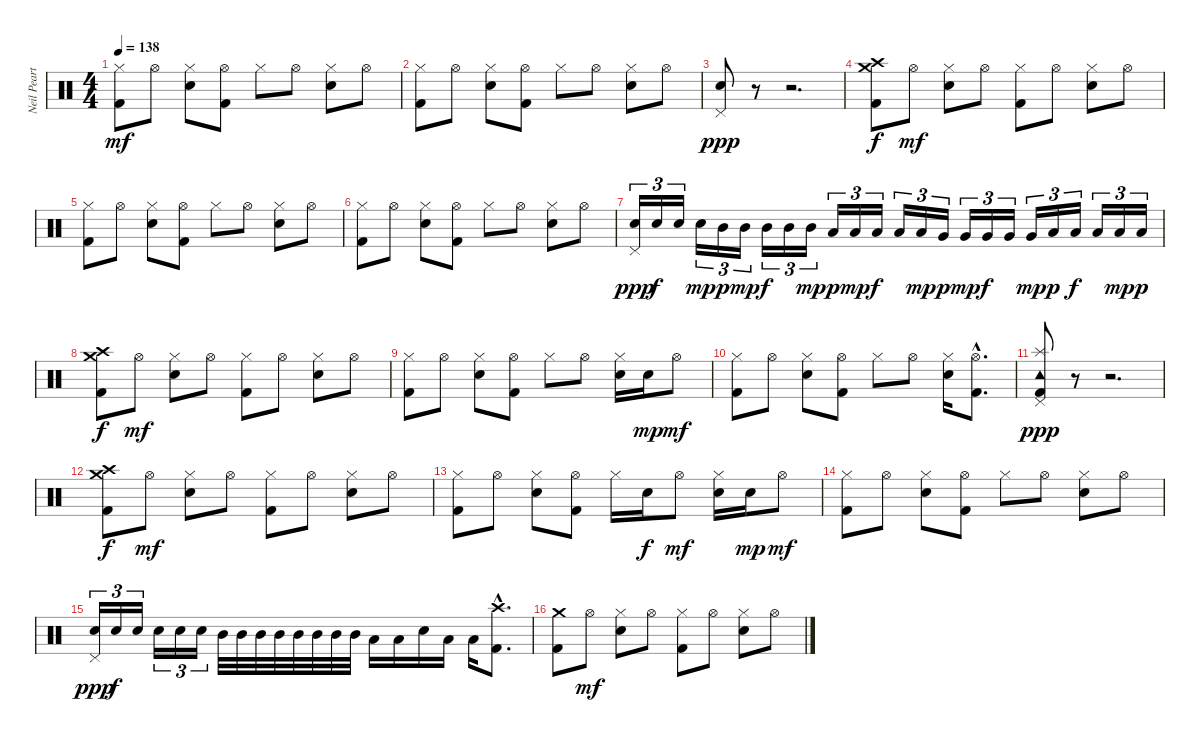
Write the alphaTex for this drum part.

\track ("Neil Peart, Percusión" "Neil Peart") {instrument percussion}
\staff {score}
\articulation defaults
\ts (4 4)
\tempo 138
\clef neutral
\ks c
("Hi-Hat (closed)" "Kick (hit) 2").8{dy mf} "Hi-Hat (open)".8 ("Hi-Hat (closed)" "Electric Snare (hit)").8 ("Hi-Hat (open)" "Kick (hit) 2").8 "Hi-Hat (closed)".8 "Hi-Hat (open)".8 ("Hi-Hat (closed)" "Electric Snare (hit)").8 "Hi-Hat (open)".8 |
("Hi-Hat (closed)" "Kick (hit) 2").8 "Hi-Hat (open)".8 ("Hi-Hat (closed)" "Electric Snare (hit)").8 ("Hi-Hat (open)" "Kick (hit) 2").8 "Hi-Hat (closed)".8 "Hi-Hat (open)".8 ("Hi-Hat (closed)" "Electric Snare (hit)").8 "Hi-Hat (open)".8 |
("Pedal Hi-Hat (hit)" "Electric Snare (hit)").8{dy ppp} r.8 r.2{d} |
("Crash medium (hit)" "Crash high (hit)" "Kick (hit) 2").8{dy f} "Hi-Hat (open)".8{dy mf} ("Hi-Hat (closed)" "Electric Snare (hit)").8 "Hi-Hat (open)".8 ("Hi-Hat (closed)" "Kick (hit) 2").8 "Hi-Hat (open)".8 ("Hi-Hat (closed)" "Electric Snare (hit)").8 "Hi-Hat (open)".8 |
("Hi-Hat (closed)" "Kick (hit) 2").8 "Hi-Hat (open)".8 ("Hi-Hat (closed)" "Electric Snare (hit)").8 ("Hi-Hat (open)" "Kick (hit) 2").8 "Hi-Hat (closed)".8 "Hi-Hat (open)".8 ("Hi-Hat (closed)" "Electric Snare (hit)").8 "Hi-Hat (open)".8 |
("Hi-Hat (closed)" "Kick (hit) 2").8 "Hi-Hat (open)".8 ("Hi-Hat (closed)" "Electric Snare (hit)").8 ("Hi-Hat (open)" "Kick (hit) 2").8 "Hi-Hat (closed)".8 "Hi-Hat (open)".8 ("Hi-Hat (closed)" "Electric Snare (hit)").8 "Hi-Hat (open)".8 |
("Pedal Hi-Hat (hit)" "Electric Snare (hit)").16{tu (3 2) dy ppp} "Electric Snare (hit)".16{tu (3 2) dy f} "Electric Snare (hit)".16{tu (3 2)} "Electric Snare (hit)".16{tu (3 2) dy mp} "Mid Tom (hit)".16{tu (3 2) dy p} "Mid Tom (hit)".16{tu (3 2) dy mp} "Mid Tom (hit)".16{tu (3 2) dy f} "Mid Tom (hit)".16{tu (3 2)} "Mid Tom (hit)".16{tu (3 2) dy mp} "Low Tom (hit)".16{tu (3 2) dy p} "Low Tom (hit)".16{tu (3 2) dy mp} "Low Tom (hit)".16{tu (3 2) dy f} "Low Tom (hit)".16{tu (3 2)} "Low Tom (hit)".16{tu (3 2) dy mp} "Very Low Tom (hit)".16{tu (3 2) dy p} "Very Low Tom (hit)".16{tu (3 2) dy mp} "Very Low Tom (hit)".16{tu (3 2) dy f} "Very Low Tom (hit)".16{tu (3 2)} "Very Low Tom (hit)".16{tu (3 2) dy mp} "Low Floor Tom (hit)".16{tu (3 2) dy p} "Low Floor Tom (hit)".16{tu (3 2) dy f} "Low Floor Tom (hit)".16{tu (3 2)} "Low Floor Tom (hit)".16{tu (3 2) dy mp} "Low Floor Tom (hit)".16{tu (3 2) dy p} |
("Crash medium (hit)" "Crash high (hit)" "Kick (hit) 2").8{dy f} "Hi-Hat (open)".8{dy mf} ("Hi-Hat (closed)" "Electric Snare (hit)").8 "Hi-Hat (open)".8 ("Hi-Hat (closed)" "Kick (hit) 2").8 "Hi-Hat (open)".8 ("Hi-Hat (closed)" "Electric Snare (hit)").8 "Hi-Hat (open)".8 |
("Hi-Hat (closed)" "Kick (hit) 2").8 "Hi-Hat (open)".8 ("Hi-Hat (closed)" "Electric Snare (hit)").8 ("Hi-Hat (open)" "Kick (hit) 2").8 "Hi-Hat (closed)".8 "Hi-Hat (open)".8 ("Hi-Hat (closed)" "Electric Snare (hit)").16 "Electric Snare (hit)".16{dy mp} "Hi-Hat (open)".8{dy mf} |
("Hi-Hat (closed)" "Kick (hit) 2").8 "Hi-Hat (open)".8 ("Hi-Hat (closed)" "Electric Snare (hit)").8 ("Hi-Hat (open)" "Kick (hit) 2").8 "Hi-Hat (closed)".8 "Hi-Hat (open)".8 ("Hi-Hat (closed)" "Electric Snare (hit)").16 ("Hi-Hat (open)"{hac} "Kick (hit) 2"{hac}).8{d} |
("Splash (hit)" "Tambourine (hit)" "Pedal Hi-Hat (hit)" "Kick (hit) 2").8{dy ppp} r.8 r.2{d} |
("Crash medium (hit)" "Crash high (hit)" "Kick (hit) 2").8{dy f} "Hi-Hat (open)".8{dy mf} ("Hi-Hat (closed)" "Electric Snare (hit)").8 "Hi-Hat (open)".8 ("Hi-Hat (closed)" "Kick (hit) 2").8 "Hi-Hat (open)".8 ("Hi-Hat (closed)" "Electric Snare (hit)").8 "Hi-Hat (open)".8 |
("Hi-Hat (closed)" "Kick (hit) 2").8 "Hi-Hat (open)".8 ("Hi-Hat (closed)" "Electric Snare (hit)").8 ("Hi-Hat (open)" "Kick (hit) 2").8 "Hi-Hat (closed)".16 "Electric Snare (hit)".16{dy f} "Hi-Hat (open)".8{dy mf} ("Hi-Hat (closed)" "Electric Snare (hit)").16 "Electric Snare (hit)".16{dy mp} "Hi-Hat (open)".8{dy mf} |
("Hi-Hat (closed)" "Kick (hit) 2").8 "Hi-Hat (open)".8 ("Hi-Hat (closed)" "Electric Snare (hit)").8 ("Hi-Hat (open)" "Kick (hit) 2").8 "Hi-Hat (closed)".8 "Hi-Hat (open)".8 ("Hi-Hat (closed)" "Electric Snare (hit)").8 "Hi-Hat (open)".8 |
("Pedal Hi-Hat (hit)" "Electric Snare (hit)").16{tu (3 2) dy ppp} "Electric Snare (hit)".16{tu (3 2) dy f} "Electric Snare (hit)".16{tu (3 2)} "Electric Snare (hit)".16{tu (3 2)} "Electric Snare (hit)".16{tu (3 2)} "Electric Snare (hit)".16{tu (3 2)} "Mid Tom (hit)".32 "Mid Tom (hit)".32 "Mid Tom (hit)".32 "Mid Tom (hit)".32 "Mid Tom (hit)".32 "Mid Tom (hit)".32 "Mid Tom (hit)".32 "Mid Tom (hit)".32 "Low Tom (hit)".16 "Low Tom (hit)".16 "Electric Snare (hit)".16 "Low Tom (hit)".16 "Low Tom (hit)".16 ("Crash high (hit)"{hac} "Kick (hit) 2"{hac}).8{d} |
("Crash medium (hit)" "Kick (hit) 2").8 "Hi-Hat (open)".8{dy mf} ("Hi-Hat (closed)" "Electric Snare (hit)").8 "Hi-Hat (open)".8 ("Hi-Hat (closed)" "Kick (hit) 2").8 "Hi-Hat (open)".8 ("Hi-Hat (closed)" "Electric Snare (hit)").8 "Hi-Hat (open)".8
